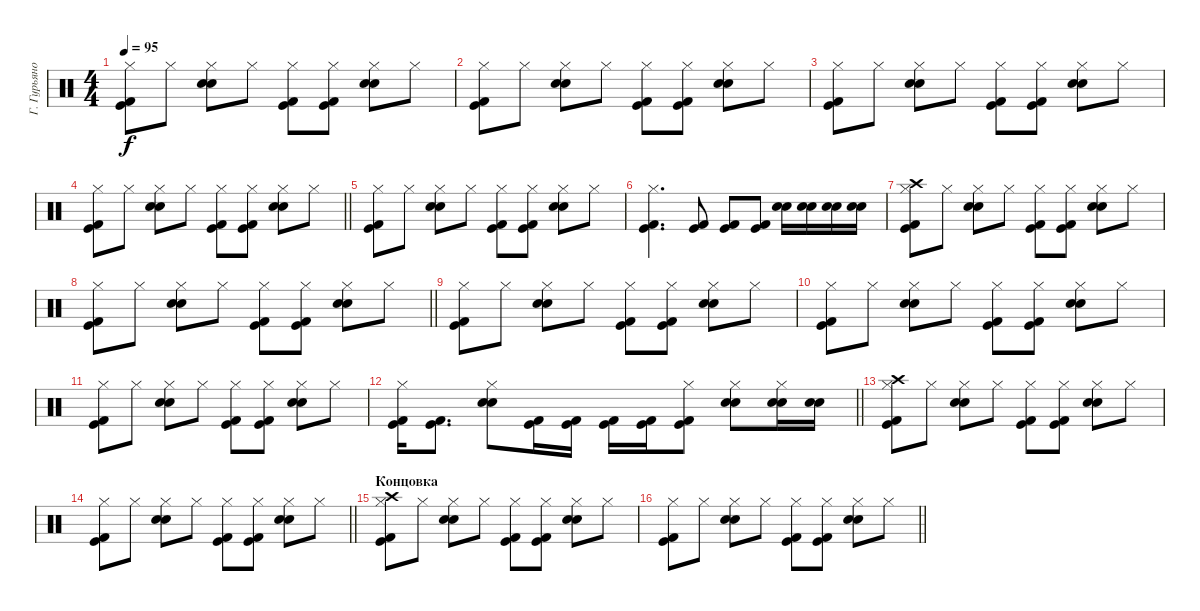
\track ("Г. Гурьянов" "Г. Гурьяно") {instrument percussion}
\staff {score}
\articulation defaults
\ts (4 4)
\tempo 95
\clef neutral
\ks c
("Kick (hit) 2" "Kick (hit)" "Hi-Hat (closed)").8{dy f} "Hi-Hat (closed)".8 ("Electric Snare (hit)" "Snare (hit) 2" "Hi-Hat (closed)").8 "Hi-Hat (closed)".8 ("Kick (hit) 2" "Kick (hit)" "Hi-Hat (closed)").8 ("Kick (hit) 2" "Kick (hit)" "Hi-Hat (closed)").8 ("Electric Snare (hit)" "Snare (hit) 2" "Hi-Hat (closed)").8 "Hi-Hat (closed)".8 |
("Kick (hit) 2" "Kick (hit)" "Hi-Hat (closed)").8 "Hi-Hat (closed)".8 ("Electric Snare (hit)" "Snare (hit) 2" "Hi-Hat (closed)").8 "Hi-Hat (closed)".8 ("Kick (hit) 2" "Kick (hit)" "Hi-Hat (closed)").8 ("Kick (hit) 2" "Kick (hit)" "Hi-Hat (closed)").8 ("Electric Snare (hit)" "Snare (hit) 2" "Hi-Hat (closed)").8 "Hi-Hat (closed)".8 |
("Kick (hit) 2" "Kick (hit)" "Hi-Hat (closed)").8 "Hi-Hat (closed)".8 ("Electric Snare (hit)" "Snare (hit) 2" "Hi-Hat (closed)").8 "Hi-Hat (closed)".8 ("Kick (hit) 2" "Kick (hit)" "Hi-Hat (closed)").8 ("Kick (hit) 2" "Kick (hit)" "Hi-Hat (closed)").8 ("Electric Snare (hit)" "Snare (hit) 2" "Hi-Hat (closed)").8 "Hi-Hat (closed)".8 |
\barLineRight lightlight
("Kick (hit) 2" "Kick (hit)" "Hi-Hat (closed)").8 "Hi-Hat (closed)".8 ("Electric Snare (hit)" "Snare (hit) 2" "Hi-Hat (closed)").8 "Hi-Hat (closed)".8 ("Kick (hit) 2" "Kick (hit)" "Hi-Hat (closed)").8 ("Kick (hit) 2" "Kick (hit)" "Hi-Hat (closed)").8 ("Electric Snare (hit)" "Snare (hit) 2" "Hi-Hat (closed)").8 "Hi-Hat (closed)".8 |
("Kick (hit) 2" "Kick (hit)" "Hi-Hat (closed)").8 "Hi-Hat (closed)".8 ("Electric Snare (hit)" "Snare (hit) 2" "Hi-Hat (closed)").8 "Hi-Hat (closed)".8 ("Kick (hit) 2" "Kick (hit)" "Hi-Hat (closed)").8 ("Kick (hit) 2" "Kick (hit)" "Hi-Hat (closed)").8 ("Electric Snare (hit)" "Snare (hit) 2" "Hi-Hat (closed)").8 "Hi-Hat (closed)".8 |
("Kick (hit) 2" "Kick (hit)" "Hi-Hat (closed)").4{d} ("Kick (hit) 2" "Kick (hit)").8 ("Kick (hit) 2" "Kick (hit)").8 ("Kick (hit) 2" "Kick (hit)").8 ("Electric Snare (hit)" "Snare (hit) 2").16 ("Electric Snare (hit)" "Snare (hit) 2").16 ("Electric Snare (hit)" "Snare (hit) 2").16 ("Electric Snare (hit)" "Snare (hit) 2").16 |
("Kick (hit) 2" "Kick (hit)" "Crash high (hit)" "Hi-Hat (closed)").8 "Hi-Hat (closed)".8 ("Electric Snare (hit)" "Snare (hit) 2" "Hi-Hat (closed)").8 "Hi-Hat (closed)".8 ("Kick (hit) 2" "Kick (hit)" "Hi-Hat (closed)").8 ("Kick (hit) 2" "Kick (hit)" "Hi-Hat (closed)").8 ("Electric Snare (hit)" "Snare (hit) 2" "Hi-Hat (closed)").8 "Hi-Hat (closed)".8 |
\barLineRight lightlight
("Kick (hit) 2" "Kick (hit)" "Hi-Hat (closed)").8 "Hi-Hat (closed)".8 ("Electric Snare (hit)" "Snare (hit) 2" "Hi-Hat (closed)").8 "Hi-Hat (closed)".8 ("Kick (hit) 2" "Kick (hit)" "Hi-Hat (closed)").8 ("Kick (hit) 2" "Kick (hit)" "Hi-Hat (closed)").8 ("Electric Snare (hit)" "Snare (hit) 2" "Hi-Hat (closed)").8 "Hi-Hat (closed)".8 |
("Kick (hit) 2" "Kick (hit)" "Hi-Hat (closed)").8 "Hi-Hat (closed)".8 ("Electric Snare (hit)" "Snare (hit) 2" "Hi-Hat (closed)").8 "Hi-Hat (closed)".8 ("Kick (hit) 2" "Kick (hit)" "Hi-Hat (closed)").8 ("Kick (hit) 2" "Kick (hit)" "Hi-Hat (closed)").8 ("Electric Snare (hit)" "Snare (hit) 2" "Hi-Hat (closed)").8 "Hi-Hat (closed)".8 |
("Kick (hit) 2" "Kick (hit)" "Hi-Hat (closed)").8 "Hi-Hat (closed)".8 ("Electric Snare (hit)" "Snare (hit) 2" "Hi-Hat (closed)").8 "Hi-Hat (closed)".8 ("Kick (hit) 2" "Kick (hit)" "Hi-Hat (closed)").8 ("Kick (hit) 2" "Kick (hit)" "Hi-Hat (closed)").8 ("Electric Snare (hit)" "Snare (hit) 2" "Hi-Hat (closed)").8 "Hi-Hat (closed)".8 |
("Kick (hit) 2" "Kick (hit)" "Hi-Hat (closed)").8 "Hi-Hat (closed)".8 ("Electric Snare (hit)" "Snare (hit) 2" "Hi-Hat (closed)").8 "Hi-Hat (closed)".8 ("Kick (hit) 2" "Kick (hit)" "Hi-Hat (closed)").8 ("Kick (hit) 2" "Kick (hit)" "Hi-Hat (closed)").8 ("Electric Snare (hit)" "Snare (hit) 2" "Hi-Hat (closed)").8 "Hi-Hat (closed)".8 |
\barLineRight lightlight
("Kick (hit) 2" "Kick (hit)" "Hi-Hat (closed)").16 ("Kick (hit) 2" "Kick (hit)").8{d} ("Electric Snare (hit)" "Snare (hit) 2" "Hi-Hat (closed)").8 ("Kick (hit) 2" "Kick (hit)").16 ("Kick (hit) 2" "Kick (hit)").16 ("Kick (hit) 2" "Kick (hit)").16 ("Kick (hit) 2" "Kick (hit)").16 ("Kick (hit) 2" "Kick (hit)" "Hi-Hat (closed)").8 ("Electric Snare (hit)" "Snare (hit) 2" "Hi-Hat (closed)").8 ("Electric Snare (hit)" "Snare (hit) 2" "Hi-Hat (closed)").16 ("Electric Snare (hit)" "Snare (hit) 2").16 |
("Kick (hit) 2" "Kick (hit)" "Crash high (hit)" "Hi-Hat (closed)").8 "Hi-Hat (closed)".8 ("Electric Snare (hit)" "Snare (hit) 2" "Hi-Hat (closed)").8 "Hi-Hat (closed)".8 ("Kick (hit) 2" "Kick (hit)" "Hi-Hat (closed)").8 ("Kick (hit) 2" "Kick (hit)" "Hi-Hat (closed)").8 ("Electric Snare (hit)" "Snare (hit) 2" "Hi-Hat (closed)").8 "Hi-Hat (closed)".8 |
\barLineRight lightlight
("Kick (hit) 2" "Kick (hit)" "Hi-Hat (closed)").8 "Hi-Hat (closed)".8 ("Electric Snare (hit)" "Snare (hit) 2" "Hi-Hat (closed)").8 "Hi-Hat (closed)".8 ("Kick (hit) 2" "Kick (hit)" "Hi-Hat (closed)").8 ("Kick (hit) 2" "Kick (hit)" "Hi-Hat (closed)").8 ("Electric Snare (hit)" "Snare (hit) 2" "Hi-Hat (closed)").8 "Hi-Hat (closed)".8 |
\section ("" "Концовка")
("Kick (hit) 2" "Kick (hit)" "Crash high (hit)" "Hi-Hat (closed)").8 "Hi-Hat (closed)".8 ("Electric Snare (hit)" "Snare (hit) 2" "Hi-Hat (closed)").8 "Hi-Hat (closed)".8 ("Kick (hit) 2" "Kick (hit)" "Hi-Hat (closed)").8 ("Kick (hit) 2" "Kick (hit)" "Hi-Hat (closed)").8 ("Electric Snare (hit)" "Snare (hit) 2" "Hi-Hat (closed)").8 "Hi-Hat (closed)".8 |
\barLineRight lightlight
("Kick (hit) 2" "Kick (hit)" "Hi-Hat (closed)").8 "Hi-Hat (closed)".8 ("Electric Snare (hit)" "Snare (hit) 2" "Hi-Hat (closed)").8 "Hi-Hat (closed)".8 ("Kick (hit) 2" "Kick (hit)" "Hi-Hat (closed)").8 ("Kick (hit) 2" "Kick (hit)" "Hi-Hat (closed)").8 ("Electric Snare (hit)" "Snare (hit) 2" "Hi-Hat (closed)").8 "Hi-Hat (closed)".8
